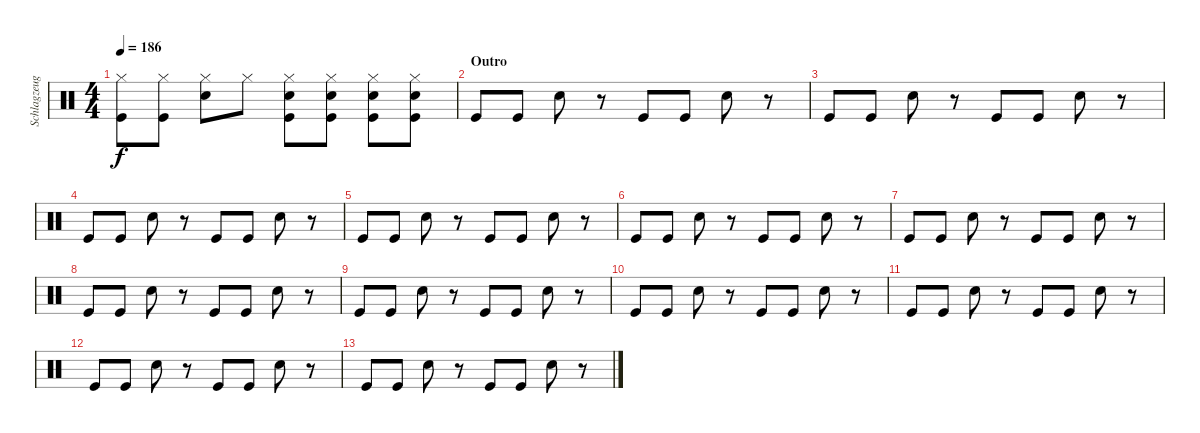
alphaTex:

\track ("Schlagzeug - Bela B." "Schlagzeug") {instrument percussion}
\staff {score}
\articulation defaults
\ts (4 4)
\tempo 186
\clef neutral
\ks c
("Hi-Hat (closed)" "Kick (hit)").8{dy f} ("Hi-Hat (closed)" "Kick (hit)").8 ("Hi-Hat (closed)" "Electric Snare (hit)").8 "Hi-Hat (closed)".8 ("Kick (hit)" "Electric Snare (hit)" "Hi-Hat (closed)").8 ("Electric Snare (hit)" "Kick (hit)" "Hi-Hat (closed)").8 ("Electric Snare (hit)" "Kick (hit)" "Hi-Hat (closed)").8 ("Electric Snare (hit)" "Kick (hit)" "Hi-Hat (closed)").8 |
\section ("" "Outro")
"Kick (hit)".8 "Kick (hit)".8 "Snare (hit) 2".8 r.8 "Kick (hit)".8 "Kick (hit)".8 "Snare (hit) 2".8 r.8 |
"Kick (hit)".8 "Kick (hit)".8 "Snare (hit) 2".8 r.8 "Kick (hit)".8 "Kick (hit)".8 "Snare (hit) 2".8 r.8 |
"Kick (hit)".8 "Kick (hit)".8 "Snare (hit) 2".8 r.8 "Kick (hit)".8 "Kick (hit)".8 "Snare (hit) 2".8 r.8 |
"Kick (hit)".8 "Kick (hit)".8 "Snare (hit) 2".8 r.8 "Kick (hit)".8 "Kick (hit)".8 "Snare (hit) 2".8 r.8 |
"Kick (hit)".8 "Kick (hit)".8 "Snare (hit) 2".8 r.8 "Kick (hit)".8 "Kick (hit)".8 "Snare (hit) 2".8 r.8 |
"Kick (hit)".8 "Kick (hit)".8 "Snare (hit) 2".8 r.8 "Kick (hit)".8 "Kick (hit)".8 "Snare (hit) 2".8 r.8 |
"Kick (hit)".8 "Kick (hit)".8 "Snare (hit) 2".8 r.8 "Kick (hit)".8 "Kick (hit)".8 "Snare (hit) 2".8 r.8 |
"Kick (hit)".8 "Kick (hit)".8 "Snare (hit) 2".8 r.8 "Kick (hit)".8 "Kick (hit)".8 "Snare (hit) 2".8 r.8 |
"Kick (hit)".8 "Kick (hit)".8 "Snare (hit) 2".8 r.8 "Kick (hit)".8 "Kick (hit)".8 "Snare (hit) 2".8 r.8 |
"Kick (hit)".8 "Kick (hit)".8 "Snare (hit) 2".8 r.8 "Kick (hit)".8 "Kick (hit)".8 "Snare (hit) 2".8 r.8 |
"Kick (hit)".8 "Kick (hit)".8 "Snare (hit) 2".8 r.8 "Kick (hit)".8 "Kick (hit)".8 "Snare (hit) 2".8 r.8 |
"Kick (hit)".8 "Kick (hit)".8 "Snare (hit) 2".8 r.8 "Kick (hit)".8 "Kick (hit)".8 "Snare (hit) 2".8 r.8
